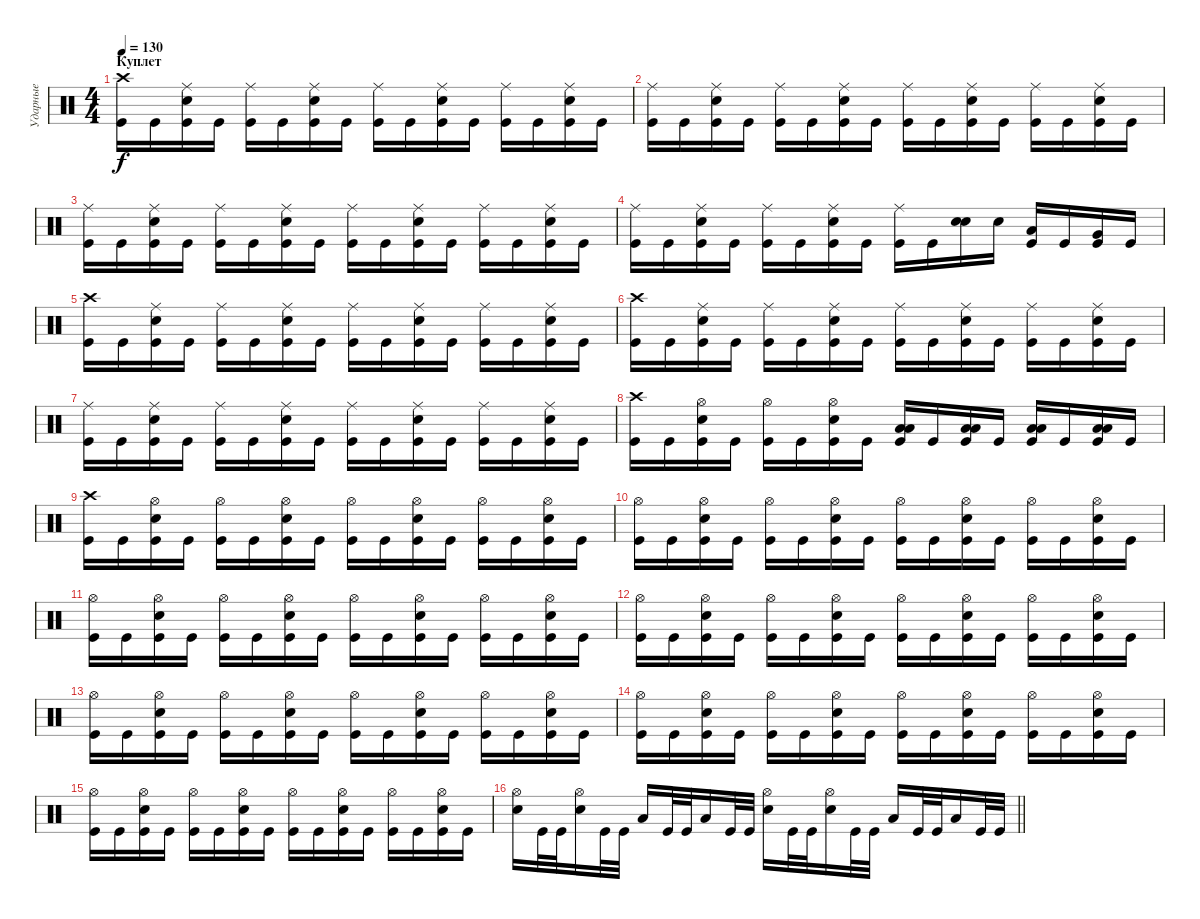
\track ("Ударные" "Ударные") {instrument percussion}
\staff {score}
\articulation defaults
\ts (4 4)
\section ("" "Куплет")
\tempo 130
\clef neutral
\ks c
("Kick (hit)" "Crash high (hit)").16{dy f} "Kick (hit)".16 ("Kick (hit)" "Snare (hit) 2" "Ride (middle)").16 "Kick (hit)".16 ("Kick (hit)" "Ride (middle)").16 "Kick (hit)".16 ("Kick (hit)" "Snare (hit) 2" "Ride (middle)").16 "Kick (hit)".16 ("Kick (hit)" "Ride (middle)").16 "Kick (hit)".16 ("Kick (hit)" "Snare (hit) 2" "Ride (middle)").16 "Kick (hit)".16 ("Kick (hit)" "Ride (middle)").16 "Kick (hit)".16 ("Kick (hit)" "Snare (hit) 2" "Ride (middle)").16 "Kick (hit)".16 |
("Kick (hit)" "Ride (middle)").16 "Kick (hit)".16 ("Kick (hit)" "Snare (hit) 2" "Ride (middle)").16 "Kick (hit)".16 ("Kick (hit)" "Ride (middle)").16 "Kick (hit)".16 ("Kick (hit)" "Snare (hit) 2" "Ride (middle)").16 "Kick (hit)".16 ("Kick (hit)" "Ride (middle)").16 "Kick (hit)".16 ("Kick (hit)" "Snare (hit) 2" "Ride (middle)").16 "Kick (hit)".16 ("Kick (hit)" "Ride (middle)").16 "Kick (hit)".16 ("Kick (hit)" "Snare (hit) 2" "Ride (middle)").16 "Kick (hit)".16 |
("Kick (hit)" "Ride (middle)").16 "Kick (hit)".16 ("Kick (hit)" "Snare (hit) 2" "Ride (middle)").16 "Kick (hit)".16 ("Kick (hit)" "Ride (middle)").16 "Kick (hit)".16 ("Kick (hit)" "Snare (hit) 2" "Ride (middle)").16 "Kick (hit)".16 ("Kick (hit)" "Ride (middle)").16 "Kick (hit)".16 ("Kick (hit)" "Snare (hit) 2" "Ride (middle)").16 "Kick (hit)".16 ("Kick (hit)" "Ride (middle)").16 "Kick (hit)".16 ("Kick (hit)" "Snare (hit) 2" "Ride (middle)").16 "Kick (hit)".16 |
("Kick (hit)" "Ride (middle)").16 "Kick (hit)".16 ("Kick (hit)" "Snare (hit) 2" "Ride (middle)").16 "Kick (hit)".16 ("Kick (hit)" "Ride (middle)").16 "Kick (hit)".16 ("Kick (hit)" "Snare (hit) 2" "Ride (middle)").16 "Kick (hit)".16 ("Kick (hit)" "Ride (middle)").16 "Kick (hit)".16 ("Snare (hit) 2" "Snare (hit) 2").16{bd 60} "Snare (hit) 2".16 ("Kick (hit)" "Low Tom (hit)").16 "Kick (hit)".16 ("Kick (hit)" "Very Low Tom (hit)").16 "Kick (hit)".16 |
("Kick (hit)" "Crash high (hit)").16 "Kick (hit)".16 ("Kick (hit)" "Snare (hit) 2" "Ride (middle)").16 "Kick (hit)".16 ("Kick (hit)" "Ride (middle)").16 "Kick (hit)".16 ("Kick (hit)" "Snare (hit) 2" "Ride (middle)").16 "Kick (hit)".16 ("Kick (hit)" "Ride (middle)").16 "Kick (hit)".16 ("Kick (hit)" "Snare (hit) 2" "Ride (middle)").16 "Kick (hit)".16 ("Kick (hit)" "Ride (middle)").16 "Kick (hit)".16 ("Kick (hit)" "Snare (hit) 2" "Ride (middle)").16 "Kick (hit)".16 |
("Kick (hit)" "Crash high (hit)").16 "Kick (hit)".16 ("Kick (hit)" "Snare (hit) 2" "Ride (middle)").16 "Kick (hit)".16 ("Kick (hit)" "Ride (middle)").16 "Kick (hit)".16 ("Kick (hit)" "Snare (hit) 2" "Ride (middle)").16 "Kick (hit)".16 ("Kick (hit)" "Ride (middle)").16 "Kick (hit)".16 ("Kick (hit)" "Snare (hit) 2" "Ride (middle)").16 "Kick (hit)".16 ("Kick (hit)" "Ride (middle)").16 "Kick (hit)".16 ("Kick (hit)" "Snare (hit) 2" "Ride (middle)").16 "Kick (hit)".16 |
("Kick (hit)" "Ride (middle)").16 "Kick (hit)".16 ("Kick (hit)" "Snare (hit) 2" "Ride (middle)").16 "Kick (hit)".16 ("Kick (hit)" "Ride (middle)").16 "Kick (hit)".16 ("Kick (hit)" "Snare (hit) 2" "Ride (middle)").16 "Kick (hit)".16 ("Kick (hit)" "Ride (middle)").16 "Kick (hit)".16 ("Kick (hit)" "Snare (hit) 2" "Ride (middle)").16 "Kick (hit)".16 ("Kick (hit)" "Ride (middle)").16 "Kick (hit)".16 ("Kick (hit)" "Snare (hit) 2" "Ride (middle)").16 "Kick (hit)".16 |
("Kick (hit)" "Crash high (hit)").16 "Kick (hit)".16 ("Kick (hit)" "Snare (hit) 2" "Hi-Hat (open)").16 "Kick (hit)".16 ("Kick (hit)" "Hi-Hat (open)").16 "Kick (hit)".16 ("Kick (hit)" "Snare (hit) 2" "Hi-Hat (open)").16 "Kick (hit)".16 ("Kick (hit)" "Low Tom (hit)" "Low Tom (hit)").16 "Kick (hit)".16 ("Kick (hit)" "Low Tom (hit)" "Low Tom (hit)").16 "Kick (hit)".16 ("Kick (hit)" "Low Tom (hit)" "Low Tom (hit)").16 "Kick (hit)".16 ("Kick (hit)" "Low Tom (hit)" "Low Tom (hit)").16 "Kick (hit)".16 |
("Kick (hit)" "Crash high (hit)").16 "Kick (hit)".16 ("Kick (hit)" "Snare (hit) 2" "Hi-Hat (open)").16 "Kick (hit)".16 ("Kick (hit)" "Hi-Hat (open)").16 "Kick (hit)".16 ("Kick (hit)" "Snare (hit) 2" "Hi-Hat (open)").16 "Kick (hit)".16 ("Kick (hit)" "Hi-Hat (open)").16 "Kick (hit)".16 ("Kick (hit)" "Snare (hit) 2" "Hi-Hat (open)").16 "Kick (hit)".16 ("Kick (hit)" "Hi-Hat (open)").16 "Kick (hit)".16 ("Kick (hit)" "Snare (hit) 2" "Hi-Hat (open)").16 "Kick (hit)".16 |
("Kick (hit)" "Hi-Hat (open)").16 "Kick (hit)".16 ("Kick (hit)" "Snare (hit) 2" "Hi-Hat (open)").16 "Kick (hit)".16 ("Kick (hit)" "Hi-Hat (open)").16 "Kick (hit)".16 ("Kick (hit)" "Snare (hit) 2" "Hi-Hat (open)").16 "Kick (hit)".16 ("Kick (hit)" "Hi-Hat (open)").16 "Kick (hit)".16 ("Kick (hit)" "Snare (hit) 2" "Hi-Hat (open)").16 "Kick (hit)".16 ("Kick (hit)" "Hi-Hat (open)").16 "Kick (hit)".16 ("Kick (hit)" "Snare (hit) 2" "Hi-Hat (open)").16 "Kick (hit)".16 |
("Kick (hit)" "Hi-Hat (open)").16 "Kick (hit)".16 ("Kick (hit)" "Snare (hit) 2" "Hi-Hat (open)").16 "Kick (hit)".16 ("Kick (hit)" "Hi-Hat (open)").16 "Kick (hit)".16 ("Kick (hit)" "Snare (hit) 2" "Hi-Hat (open)").16 "Kick (hit)".16 ("Kick (hit)" "Hi-Hat (open)").16 "Kick (hit)".16 ("Kick (hit)" "Snare (hit) 2" "Hi-Hat (open)").16 "Kick (hit)".16 ("Kick (hit)" "Hi-Hat (open)").16 "Kick (hit)".16 ("Kick (hit)" "Snare (hit) 2" "Hi-Hat (open)").16 "Kick (hit)".16 |
("Kick (hit)" "Hi-Hat (open)").16 "Kick (hit)".16 ("Kick (hit)" "Snare (hit) 2" "Hi-Hat (open)").16 "Kick (hit)".16 ("Kick (hit)" "Hi-Hat (open)").16 "Kick (hit)".16 ("Kick (hit)" "Snare (hit) 2" "Hi-Hat (open)").16 "Kick (hit)".16 ("Kick (hit)" "Hi-Hat (open)").16 "Kick (hit)".16 ("Kick (hit)" "Snare (hit) 2" "Hi-Hat (open)").16 "Kick (hit)".16 ("Kick (hit)" "Hi-Hat (open)").16 "Kick (hit)".16 ("Kick (hit)" "Snare (hit) 2" "Hi-Hat (open)").16 "Kick (hit)".16 |
("Kick (hit)" "Hi-Hat (open)").16 "Kick (hit)".16 ("Kick (hit)" "Snare (hit) 2" "Hi-Hat (open)").16 "Kick (hit)".16 ("Kick (hit)" "Hi-Hat (open)").16 "Kick (hit)".16 ("Kick (hit)" "Snare (hit) 2" "Hi-Hat (open)").16 "Kick (hit)".16 ("Kick (hit)" "Hi-Hat (open)").16 "Kick (hit)".16 ("Kick (hit)" "Snare (hit) 2" "Hi-Hat (open)").16 "Kick (hit)".16 ("Kick (hit)" "Hi-Hat (open)").16 "Kick (hit)".16 ("Kick (hit)" "Snare (hit) 2" "Hi-Hat (open)").16 "Kick (hit)".16 |
("Kick (hit)" "Hi-Hat (open)").16 "Kick (hit)".16 ("Kick (hit)" "Snare (hit) 2" "Hi-Hat (open)").16 "Kick (hit)".16 ("Kick (hit)" "Hi-Hat (open)").16 "Kick (hit)".16 ("Kick (hit)" "Snare (hit) 2" "Hi-Hat (open)").16 "Kick (hit)".16 ("Kick (hit)" "Hi-Hat (open)").16 "Kick (hit)".16 ("Kick (hit)" "Snare (hit) 2" "Hi-Hat (open)").16 "Kick (hit)".16 ("Kick (hit)" "Hi-Hat (open)").16 "Kick (hit)".16 ("Kick (hit)" "Snare (hit) 2" "Hi-Hat (open)").16 "Kick (hit)".16 |
("Kick (hit)" "Hi-Hat (open)").16 "Kick (hit)".16 ("Kick (hit)" "Snare (hit) 2" "Hi-Hat (open)").16 "Kick (hit)".16 ("Kick (hit)" "Hi-Hat (open)").16 "Kick (hit)".16 ("Kick (hit)" "Snare (hit) 2" "Hi-Hat (open)").16 "Kick (hit)".16 ("Kick (hit)" "Hi-Hat (open)").16 "Kick (hit)".16 ("Kick (hit)" "Snare (hit) 2" "Hi-Hat (open)").16 "Kick (hit)".16 ("Kick (hit)" "Hi-Hat (open)").16 "Kick (hit)".16 ("Kick (hit)" "Snare (hit) 2" "Hi-Hat (open)").16 "Kick (hit)".16 |
\barLineRight lightlight
("Snare (hit) 2" "Hi-Hat (open)").16 "Kick (hit)".32 "Kick (hit)".32 ("Snare (hit) 2" "Hi-Hat (open)").16 "Kick (hit)".32 "Kick (hit)".32 "Low Tom (hit)".16 "Kick (hit)".32 "Kick (hit)".32 "Low Tom (hit)".16 "Kick (hit)".32 "Kick (hit)".32 ("Snare (hit) 2" "Hi-Hat (open)").16 "Kick (hit)".32 "Kick (hit)".32 ("Snare (hit) 2" "Hi-Hat (open)").16 "Kick (hit)".32 "Kick (hit)".32 "Low Tom (hit)".16 "Kick (hit)".32 "Kick (hit)".32 "Low Tom (hit)".16 "Kick (hit)".32 "Kick (hit)".32
